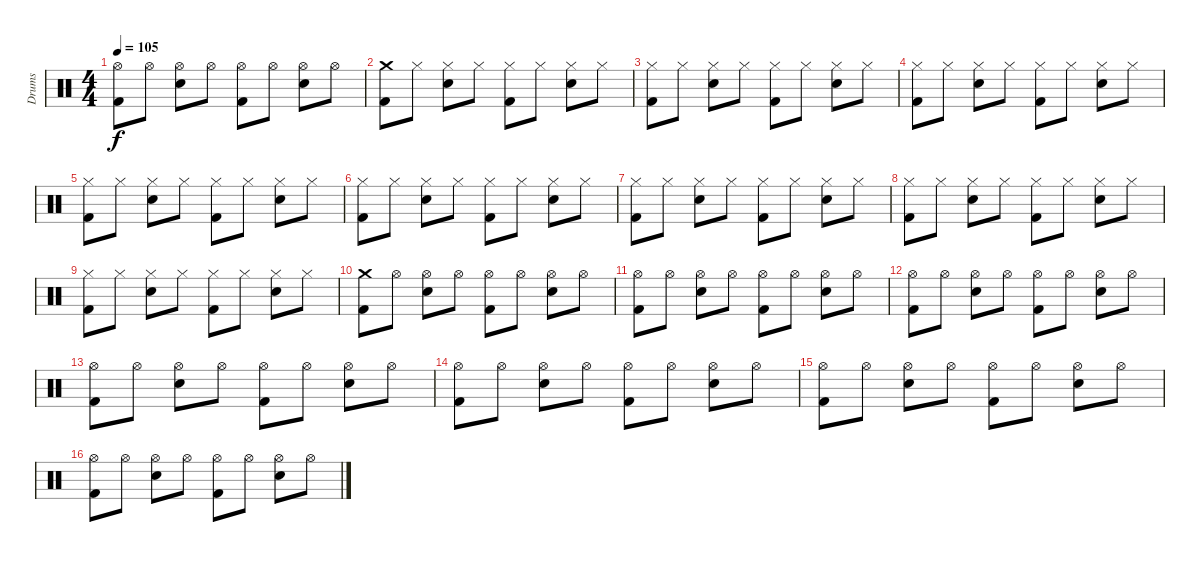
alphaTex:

\track ("Drums" "Drums") {instrument percussion}
\staff {score}
\articulation defaults
\ts (4 4)
\tempo 105
\clef neutral
\ks c
("Hi-Hat (open)" "Kick (hit) 2").8{dy f} "Hi-Hat (open)".8 ("Hi-Hat (open)" "Electric Snare (hit)").8 "Hi-Hat (open)".8 ("Hi-Hat (open)" "Kick (hit) 2").8 "Hi-Hat (open)".8 ("Hi-Hat (open)" "Electric Snare (hit)").8 "Hi-Hat (open)".8 |
("Crash medium (hit)" "Kick (hit) 2").8 "Hi-Hat (closed)".8 ("Hi-Hat (closed)" "Electric Snare (hit)").8 "Hi-Hat (closed)".8 ("Hi-Hat (closed)" "Kick (hit) 2").8 "Hi-Hat (closed)".8 ("Hi-Hat (closed)" "Electric Snare (hit)").8 "Hi-Hat (closed)".8 |
("Hi-Hat (closed)" "Kick (hit) 2").8 "Hi-Hat (closed)".8 ("Hi-Hat (closed)" "Electric Snare (hit)").8 "Hi-Hat (closed)".8 ("Hi-Hat (closed)" "Kick (hit) 2").8 "Hi-Hat (closed)".8 ("Hi-Hat (closed)" "Electric Snare (hit)").8 "Hi-Hat (closed)".8 |
("Hi-Hat (closed)" "Kick (hit) 2").8 "Hi-Hat (closed)".8 ("Hi-Hat (closed)" "Electric Snare (hit)").8 "Hi-Hat (closed)".8 ("Hi-Hat (closed)" "Kick (hit) 2").8 "Hi-Hat (closed)".8 ("Hi-Hat (closed)" "Electric Snare (hit)").8 "Hi-Hat (closed)".8 |
("Hi-Hat (closed)" "Kick (hit) 2").8 "Hi-Hat (closed)".8 ("Hi-Hat (closed)" "Electric Snare (hit)").8 "Hi-Hat (closed)".8 ("Hi-Hat (closed)" "Kick (hit) 2").8 "Hi-Hat (closed)".8 ("Hi-Hat (closed)" "Electric Snare (hit)").8 "Hi-Hat (closed)".8 |
("Hi-Hat (closed)" "Kick (hit) 2").8 "Hi-Hat (closed)".8 ("Hi-Hat (closed)" "Electric Snare (hit)").8 "Hi-Hat (closed)".8 ("Hi-Hat (closed)" "Kick (hit) 2").8 "Hi-Hat (closed)".8 ("Hi-Hat (closed)" "Electric Snare (hit)").8 "Hi-Hat (closed)".8 |
("Hi-Hat (closed)" "Kick (hit) 2").8 "Hi-Hat (closed)".8 ("Hi-Hat (closed)" "Electric Snare (hit)").8 "Hi-Hat (closed)".8 ("Hi-Hat (closed)" "Kick (hit) 2").8 "Hi-Hat (closed)".8 ("Hi-Hat (closed)" "Electric Snare (hit)").8 "Hi-Hat (closed)".8 |
("Hi-Hat (closed)" "Kick (hit) 2").8 "Hi-Hat (closed)".8 ("Hi-Hat (closed)" "Electric Snare (hit)").8 "Hi-Hat (closed)".8 ("Hi-Hat (closed)" "Kick (hit) 2").8 "Hi-Hat (closed)".8 ("Hi-Hat (closed)" "Electric Snare (hit)").8 "Hi-Hat (closed)".8 |
("Hi-Hat (closed)" "Kick (hit) 2").8 "Hi-Hat (closed)".8 ("Hi-Hat (closed)" "Electric Snare (hit)").8 "Hi-Hat (closed)".8 ("Hi-Hat (closed)" "Kick (hit) 2").8 "Hi-Hat (closed)".8 ("Hi-Hat (closed)" "Electric Snare (hit)").8 "Hi-Hat (closed)".8 |
("Crash medium (hit)" "Kick (hit) 2").8 "Hi-Hat (open)".8 ("Hi-Hat (open)" "Electric Snare (hit)").8 "Hi-Hat (open)".8 ("Hi-Hat (open)" "Kick (hit) 2").8 "Hi-Hat (open)".8 ("Hi-Hat (open)" "Electric Snare (hit)").8 "Hi-Hat (open)".8 |
("Hi-Hat (open)" "Kick (hit) 2").8 "Hi-Hat (open)".8 ("Hi-Hat (open)" "Electric Snare (hit)").8 "Hi-Hat (open)".8 ("Hi-Hat (open)" "Kick (hit) 2").8 "Hi-Hat (open)".8 ("Hi-Hat (open)" "Electric Snare (hit)").8 "Hi-Hat (open)".8 |
("Hi-Hat (open)" "Kick (hit) 2").8 "Hi-Hat (open)".8 ("Hi-Hat (open)" "Electric Snare (hit)").8 "Hi-Hat (open)".8 ("Hi-Hat (open)" "Kick (hit) 2").8 "Hi-Hat (open)".8 ("Hi-Hat (open)" "Electric Snare (hit)").8 "Hi-Hat (open)".8 |
("Hi-Hat (open)" "Kick (hit) 2").8 "Hi-Hat (open)".8 ("Hi-Hat (open)" "Electric Snare (hit)").8 "Hi-Hat (open)".8 ("Hi-Hat (open)" "Kick (hit) 2").8 "Hi-Hat (open)".8 ("Hi-Hat (open)" "Electric Snare (hit)").8 "Hi-Hat (open)".8 |
("Hi-Hat (open)" "Kick (hit) 2").8 "Hi-Hat (open)".8 ("Hi-Hat (open)" "Electric Snare (hit)").8 "Hi-Hat (open)".8 ("Hi-Hat (open)" "Kick (hit) 2").8 "Hi-Hat (open)".8 ("Hi-Hat (open)" "Electric Snare (hit)").8 "Hi-Hat (open)".8 |
("Hi-Hat (open)" "Kick (hit) 2").8 "Hi-Hat (open)".8 ("Hi-Hat (open)" "Electric Snare (hit)").8 "Hi-Hat (open)".8 ("Hi-Hat (open)" "Kick (hit) 2").8 "Hi-Hat (open)".8 ("Hi-Hat (open)" "Electric Snare (hit)").8 "Hi-Hat (open)".8 |
("Hi-Hat (open)" "Kick (hit) 2").8 "Hi-Hat (open)".8 ("Hi-Hat (open)" "Electric Snare (hit)").8 "Hi-Hat (open)".8 ("Hi-Hat (open)" "Kick (hit) 2").8 "Hi-Hat (open)".8 ("Hi-Hat (open)" "Electric Snare (hit)").8 "Hi-Hat (open)".8
